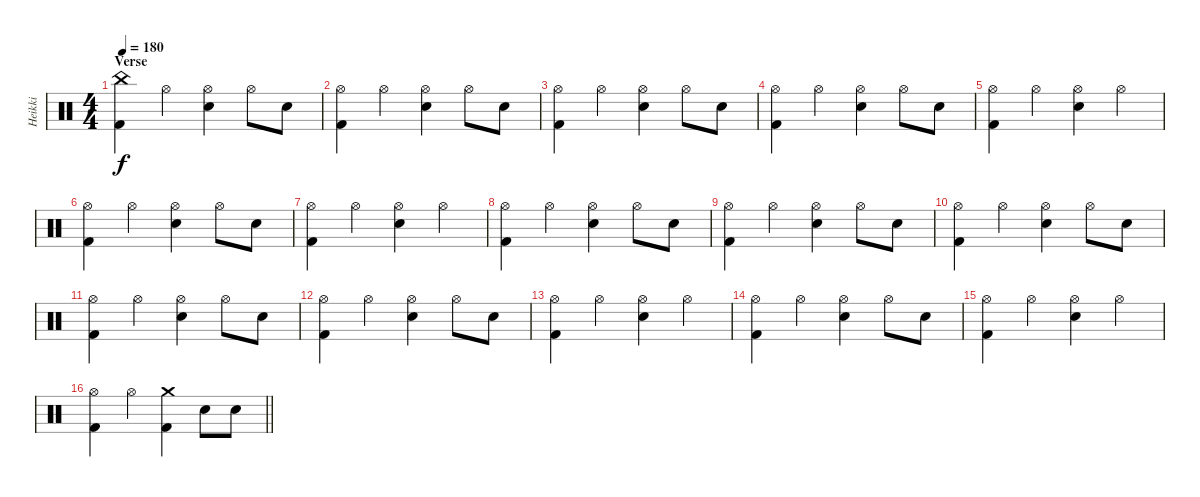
\track ("Heikki" "Heikki") {instrument percussion}
\staff {score}
\articulation defaults
\ts (4 4)
\section ("" "Verse")
\tempo 180
\clef neutral
\ks c
("China (hit)" "Kick (hit) 2").4{dy f} "Hi-Hat (open)".4 ("Hi-Hat (open)" "Electric Snare (hit)").4 "Hi-Hat (open)".8 "Electric Snare (hit)".8 |
("Hi-Hat (open)" "Kick (hit) 2").4 "Hi-Hat (open)".4 ("Hi-Hat (open)" "Electric Snare (hit)").4 "Hi-Hat (open)".8 "Electric Snare (hit)".8 |
("Hi-Hat (open)" "Kick (hit) 2").4 "Hi-Hat (open)".4 ("Hi-Hat (open)" "Electric Snare (hit)").4 "Hi-Hat (open)".8 "Electric Snare (hit)".8 |
("Hi-Hat (open)" "Kick (hit) 2").4 "Hi-Hat (open)".4 ("Hi-Hat (open)" "Electric Snare (hit)").4 "Hi-Hat (open)".8 "Electric Snare (hit)".8 |
("Hi-Hat (open)" "Kick (hit) 2").4 "Hi-Hat (open)".4 ("Hi-Hat (open)" "Electric Snare (hit)").4 "Hi-Hat (open)".4 |
("Hi-Hat (open)" "Kick (hit) 2").4 "Hi-Hat (open)".4 ("Hi-Hat (open)" "Electric Snare (hit)").4 "Hi-Hat (open)".8 "Electric Snare (hit)".8 |
("Hi-Hat (open)" "Kick (hit) 2").4 "Hi-Hat (open)".4 ("Hi-Hat (open)" "Electric Snare (hit)").4 "Hi-Hat (open)".4 |
("Hi-Hat (open)" "Kick (hit) 2").4 "Hi-Hat (open)".4 ("Hi-Hat (open)" "Electric Snare (hit)").4 "Hi-Hat (open)".8 "Electric Snare (hit)".8 |
("Hi-Hat (open)" "Kick (hit) 2").4 "Hi-Hat (open)".4 ("Hi-Hat (open)" "Electric Snare (hit)").4 "Hi-Hat (open)".8 "Electric Snare (hit)".8 |
("Hi-Hat (open)" "Kick (hit) 2").4 "Hi-Hat (open)".4 ("Hi-Hat (open)" "Electric Snare (hit)").4 "Hi-Hat (open)".8 "Electric Snare (hit)".8 |
("Hi-Hat (open)" "Kick (hit) 2").4 "Hi-Hat (open)".4 ("Hi-Hat (open)" "Electric Snare (hit)").4 "Hi-Hat (open)".8 "Electric Snare (hit)".8 |
("Hi-Hat (open)" "Kick (hit) 2").4 "Hi-Hat (open)".4 ("Hi-Hat (open)" "Electric Snare (hit)").4 "Hi-Hat (open)".8 "Electric Snare (hit)".8 |
("Hi-Hat (open)" "Kick (hit) 2").4 "Hi-Hat (open)".4 ("Hi-Hat (open)" "Electric Snare (hit)").4 "Hi-Hat (open)".4 |
("Hi-Hat (open)" "Kick (hit) 2").4 "Hi-Hat (open)".4 ("Hi-Hat (open)" "Electric Snare (hit)").4 "Hi-Hat (open)".8 "Electric Snare (hit)".8 |
("Hi-Hat (open)" "Kick (hit) 2").4 "Hi-Hat (open)".4 ("Hi-Hat (open)" "Electric Snare (hit)").4 "Hi-Hat (open)".4 |
\barLineRight lightlight
("Hi-Hat (open)" "Kick (hit) 2").4 "Hi-Hat (open)".4 ("Crash medium (hit)" "Kick (hit) 2").4 "Electric Snare (hit)".8 "Electric Snare (hit)".8
